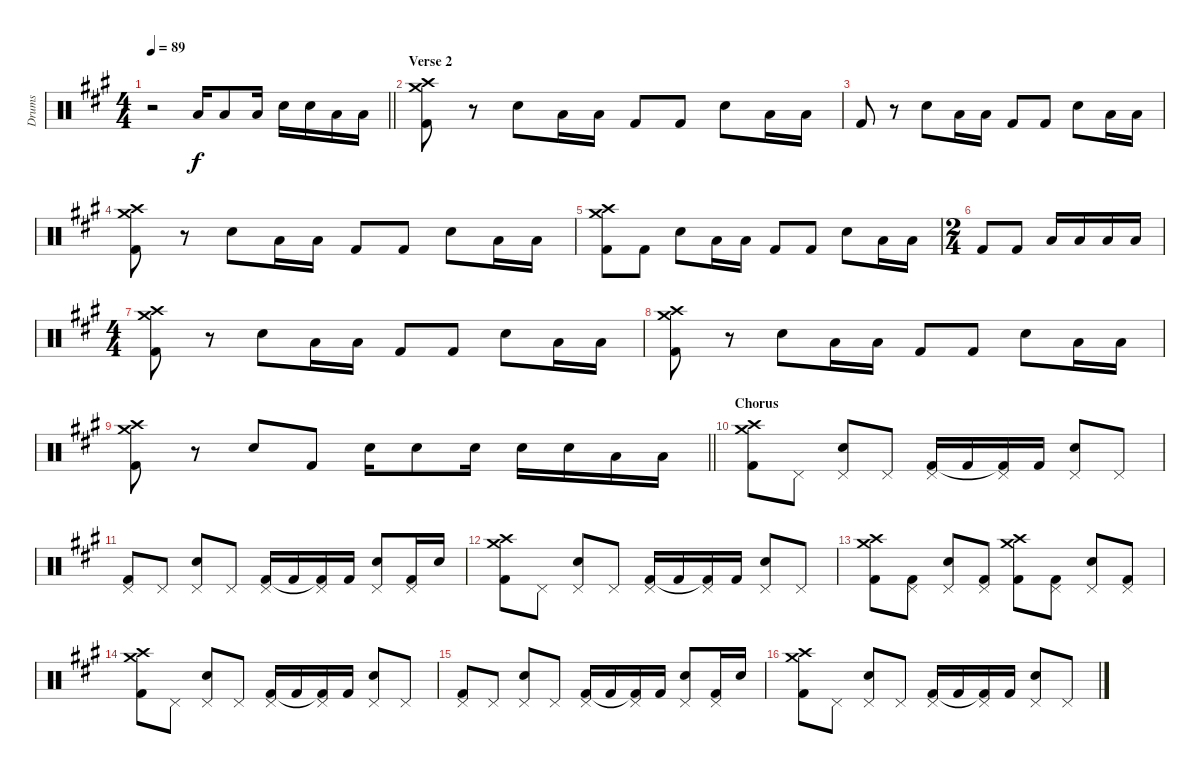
\track ("Drums" "Drums") {instrument percussion}
\staff {score}
\articulation defaults
\ts (4 4)
\tempo 89
\clef neutral
\barLineRight lightlight
\ks a
r.2{dy f} "Low Tom (hit)".16 "Low Tom (hit)".8 "Low Tom (hit)".16 "Snare (hit) 2".16 "Snare (hit) 2".16 "Low Tom (hit)".16 "Low Tom (hit)".16 |
\section ("" "Verse 2")
("Crash high (hit)" "Crash medium (hit)" "Kick (hit) 2").8 r.8 "Snare (hit) 2".8 "Low Tom (hit)".16 "Low Tom (hit)".16 "Kick (hit) 2".8 "Kick (hit) 2".8 "Snare (hit) 2".8 "Low Tom (hit)".16 "Low Tom (hit)".16 |
"Kick (hit) 2".8 r.8 "Snare (hit) 2".8 "Low Tom (hit)".16 "Low Tom (hit)".16 "Kick (hit) 2".8 "Kick (hit) 2".8 "Snare (hit) 2".8 "Low Tom (hit)".16 "Low Tom (hit)".16 |
("Crash high (hit)" "Crash medium (hit)" "Kick (hit) 2").8 r.8 "Snare (hit) 2".8 "Low Tom (hit)".16 "Low Tom (hit)".16 "Kick (hit) 2".8 "Kick (hit) 2".8 "Snare (hit) 2".8 "Low Tom (hit)".16 "Low Tom (hit)".16 |
("Crash high (hit)" "Crash medium (hit)" "Kick (hit) 2").8 "Kick (hit) 2".8 "Snare (hit) 2".8 "Low Tom (hit)".16 "Low Tom (hit)".16 "Kick (hit) 2".8 "Kick (hit) 2".8 "Snare (hit) 2".8 "Low Tom (hit)".16 "Low Tom (hit)".16 |
\ts (2 4)
"Kick (hit) 2".8 "Kick (hit) 2".8 "Low Tom (hit)".16 "Low Tom (hit)".16 "Low Floor Tom (hit)".16 "Low Floor Tom (hit)".16 |
\ts (4 4)
("Crash high (hit)" "Crash medium (hit)" "Kick (hit) 2").8 r.8 "Snare (hit) 2".8 "Low Tom (hit)".16 "Low Tom (hit)".16 "Kick (hit) 2".8 "Kick (hit) 2".8 "Snare (hit) 2".8 "Low Tom (hit)".16 "Low Tom (hit)".16 |
("Crash high (hit)" "Crash medium (hit)" "Kick (hit) 2").8 r.8 "Snare (hit) 2".8 "Low Tom (hit)".16 "Low Tom (hit)".16 "Kick (hit) 2".8 "Kick (hit) 2".8 "Snare (hit) 2".8 "Low Tom (hit)".16 "Low Tom (hit)".16 |
\barLineRight lightlight
("Crash high (hit)" "Crash medium (hit)" "Kick (hit) 2").8 r.8 "Snare (hit) 2".8 "Kick (hit) 2".8 "Snare (hit) 2".16 "Snare (hit) 2".8 "Snare (hit) 2".16 "Snare (hit) 2".16 "Snare (hit) 2".16 "Low Tom (hit)".16 "Low Tom (hit)".16 |
\section ("" "Chorus")
("Crash high (hit)" "Crash medium (hit)" "Kick (hit) 2").8 "Pedal Hi-Hat (hit)".8 ("Pedal Hi-Hat (hit)" "Snare (hit) 2").8 "Pedal Hi-Hat (hit)".8 ("Pedal Hi-Hat (hit)" "Kick (hit) 2").16 "Kick (hit) 2".16 ("Pedal Hi-Hat (hit)" "Kick (hit) 2"{t}).16 "Kick (hit) 2".16 ("Pedal Hi-Hat (hit)" "Snare (hit) 2").8 "Pedal Hi-Hat (hit)".8 |
("Pedal Hi-Hat (hit)" "Kick (hit) 2").8 "Pedal Hi-Hat (hit)".8 ("Pedal Hi-Hat (hit)" "Snare (hit) 2").8 "Pedal Hi-Hat (hit)".8 ("Pedal Hi-Hat (hit)" "Kick (hit) 2").16 "Kick (hit) 2".16 ("Pedal Hi-Hat (hit)" "Kick (hit) 2"{t}).16 "Kick (hit) 2".16 ("Pedal Hi-Hat (hit)" "Snare (hit) 2").8 ("Pedal Hi-Hat (hit)" "Kick (hit) 2").16 "Snare (hit) 2".16 |
("Crash high (hit)" "Crash medium (hit)" "Kick (hit) 2").8 "Pedal Hi-Hat (hit)".8 ("Pedal Hi-Hat (hit)" "Snare (hit) 2").8 "Pedal Hi-Hat (hit)".8 ("Pedal Hi-Hat (hit)" "Kick (hit) 2").16 "Kick (hit) 2".16 ("Pedal Hi-Hat (hit)" "Kick (hit) 2"{t}).16 "Kick (hit) 2".16 ("Pedal Hi-Hat (hit)" "Snare (hit) 2").8 "Pedal Hi-Hat (hit)".8 |
("Crash high (hit)" "Crash medium (hit)" "Kick (hit) 2").8 ("Pedal Hi-Hat (hit)" "Kick (hit) 2").8 ("Pedal Hi-Hat (hit)" "Snare (hit) 2").8 ("Pedal Hi-Hat (hit)" "Kick (hit) 2").8 ("Crash high (hit)" "Crash medium (hit)" "Kick (hit) 2").8 ("Pedal Hi-Hat (hit)" "Kick (hit) 2").8 ("Pedal Hi-Hat (hit)" "Snare (hit) 2").8 ("Pedal Hi-Hat (hit)" "Kick (hit) 2").8 |
("Crash high (hit)" "Crash medium (hit)" "Kick (hit) 2").8 "Pedal Hi-Hat (hit)".8 ("Pedal Hi-Hat (hit)" "Snare (hit) 2").8 "Pedal Hi-Hat (hit)".8 ("Pedal Hi-Hat (hit)" "Kick (hit) 2").16 "Kick (hit) 2".16 ("Pedal Hi-Hat (hit)" "Kick (hit) 2"{t}).16 "Kick (hit) 2".16 ("Pedal Hi-Hat (hit)" "Snare (hit) 2").8 "Pedal Hi-Hat (hit)".8 |
("Pedal Hi-Hat (hit)" "Kick (hit) 2").8 "Pedal Hi-Hat (hit)".8 ("Pedal Hi-Hat (hit)" "Snare (hit) 2").8 "Pedal Hi-Hat (hit)".8 ("Pedal Hi-Hat (hit)" "Kick (hit) 2").16 "Kick (hit) 2".16 ("Pedal Hi-Hat (hit)" "Kick (hit) 2"{t}).16 "Kick (hit) 2".16 ("Pedal Hi-Hat (hit)" "Snare (hit) 2").8 ("Pedal Hi-Hat (hit)" "Kick (hit) 2").16 "Snare (hit) 2".16 |
("Crash high (hit)" "Crash medium (hit)" "Kick (hit) 2").8 "Pedal Hi-Hat (hit)".8 ("Pedal Hi-Hat (hit)" "Snare (hit) 2").8 "Pedal Hi-Hat (hit)".8 ("Pedal Hi-Hat (hit)" "Kick (hit) 2").16 "Kick (hit) 2".16 ("Pedal Hi-Hat (hit)" "Kick (hit) 2"{t}).16 "Kick (hit) 2".16 ("Pedal Hi-Hat (hit)" "Snare (hit) 2").8 "Pedal Hi-Hat (hit)".8
